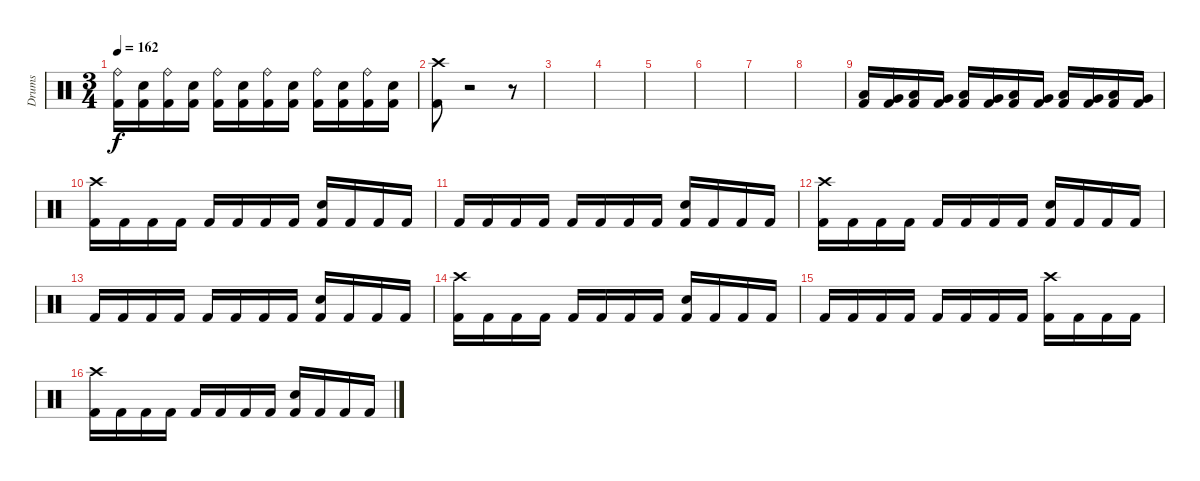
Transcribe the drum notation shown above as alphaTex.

\track ("Drums" "Drums") {instrument percussion}
\staff {score}
\articulation defaults
\ts (3 4)
\tempo 162
\clef neutral
\ks c
("Ride (bell)" "Kick (hit) 2").16{dy f} ("Snare (hit) 2" "Kick (hit) 2").16 ("Ride (bell)" "Kick (hit) 2").16 ("Snare (hit) 2" "Kick (hit) 2").16 ("Ride (bell)" "Kick (hit) 2").16 ("Snare (hit) 2" "Kick (hit) 2").16 ("Ride (bell)" "Kick (hit) 2").16 ("Snare (hit) 2" "Kick (hit) 2").16 ("Ride (bell)" "Kick (hit) 2").16 ("Snare (hit) 2" "Kick (hit) 2").16 ("Ride (bell)" "Kick (hit) 2").16 ("Snare (hit) 2" "Kick (hit) 2").16 |
("Crash high (hit)" "Kick (hit) 2").8 r.2 r.8 |
|
|
|
|
|
|
("Low Tom (hit)" "Kick (hit) 2").16 ("Very Low Tom (hit)" "Kick (hit) 2").16 ("Low Floor Tom (hit)" "Kick (hit) 2").16 ("Very Low Tom (hit)" "Kick (hit) 2").16 ("Low Tom (hit)" "Kick (hit) 2").16 ("Very Low Tom (hit)" "Kick (hit) 2").16 ("Low Floor Tom (hit)" "Kick (hit) 2").16 ("Very Low Tom (hit)" "Kick (hit) 2").16 ("Low Tom (hit)" "Kick (hit) 2").16 ("Very Low Tom (hit)" "Kick (hit) 2").16 ("Low Floor Tom (hit)" "Kick (hit) 2").16 ("Very Low Tom (hit)" "Kick (hit) 2").16 |
("Crash high (hit)" "Kick (hit) 2").16 "Kick (hit) 2".16 "Kick (hit) 2".16 "Kick (hit) 2".16 "Kick (hit) 2".16 "Kick (hit) 2".16 "Kick (hit) 2".16 "Kick (hit) 2".16 ("Snare (hit) 2" "Kick (hit) 2").16 "Kick (hit) 2".16 "Kick (hit) 2".16 "Kick (hit) 2".16 |
"Kick (hit) 2".16 "Kick (hit) 2".16 "Kick (hit) 2".16 "Kick (hit) 2".16 "Kick (hit) 2".16 "Kick (hit) 2".16 "Kick (hit) 2".16 "Kick (hit) 2".16 ("Snare (hit) 2" "Kick (hit) 2").16 "Kick (hit) 2".16 "Kick (hit) 2".16 "Kick (hit) 2".16 |
("Crash high (hit)" "Kick (hit) 2").16 "Kick (hit) 2".16 "Kick (hit) 2".16 "Kick (hit) 2".16 "Kick (hit) 2".16 "Kick (hit) 2".16 "Kick (hit) 2".16 "Kick (hit) 2".16 ("Snare (hit) 2" "Kick (hit) 2").16 "Kick (hit) 2".16 "Kick (hit) 2".16 "Kick (hit) 2".16 |
"Kick (hit) 2".16 "Kick (hit) 2".16 "Kick (hit) 2".16 "Kick (hit) 2".16 "Kick (hit) 2".16 "Kick (hit) 2".16 "Kick (hit) 2".16 "Kick (hit) 2".16 ("Snare (hit) 2" "Kick (hit) 2").16 "Kick (hit) 2".16 "Kick (hit) 2".16 "Kick (hit) 2".16 |
("Crash high (hit)" "Kick (hit) 2").16 "Kick (hit) 2".16 "Kick (hit) 2".16 "Kick (hit) 2".16 "Kick (hit) 2".16 "Kick (hit) 2".16 "Kick (hit) 2".16 "Kick (hit) 2".16 ("Snare (hit) 2" "Kick (hit) 2").16 "Kick (hit) 2".16 "Kick (hit) 2".16 "Kick (hit) 2".16 |
"Kick (hit) 2".16 "Kick (hit) 2".16 "Kick (hit) 2".16 "Kick (hit) 2".16 "Kick (hit) 2".16 "Kick (hit) 2".16 "Kick (hit) 2".16 "Kick (hit) 2".16 ("Crash high (hit)" "Kick (hit) 2").16 "Kick (hit) 2".16 "Kick (hit) 2".16 "Kick (hit) 2".16 |
("Crash high (hit)" "Kick (hit) 2").16 "Kick (hit) 2".16 "Kick (hit) 2".16 "Kick (hit) 2".16 "Kick (hit) 2".16 "Kick (hit) 2".16 "Kick (hit) 2".16 "Kick (hit) 2".16 ("Snare (hit) 2" "Kick (hit) 2").16 "Kick (hit) 2".16 "Kick (hit) 2".16 "Kick (hit) 2".16
